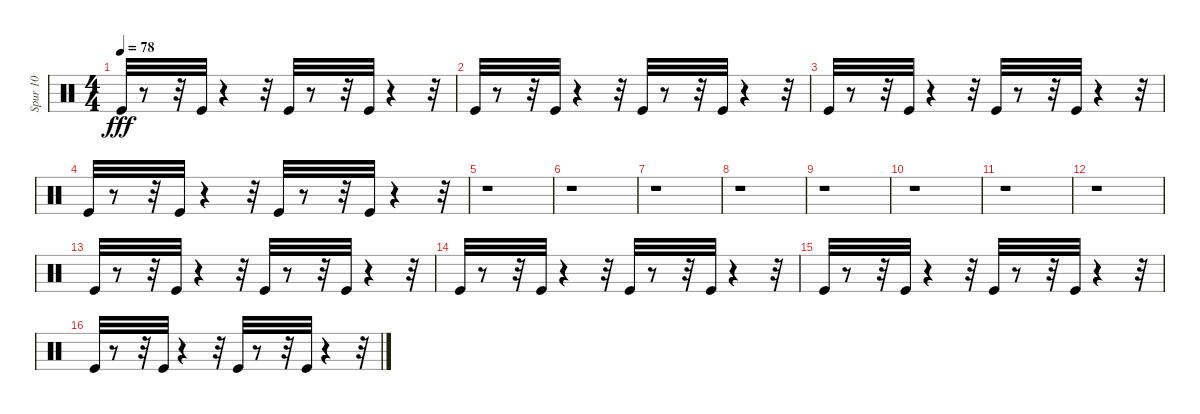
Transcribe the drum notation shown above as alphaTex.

\track ("Spur 10" "Spur 10") {instrument percussion}
\staff {score}
\articulation defaults
\ts (4 4)
\tempo 78
\clef neutral
\ks c "Kick (hit)".32{dy fff}
r.8 r.32 "Kick (hit)".32 r.4 r.32 "Kick (hit)".32 r.8 r.32 "Kick (hit)".32 r.4 r.32 |
"Kick (hit)".32 r.8 r.32 "Kick (hit)".32 r.4 r.32 "Kick (hit)".32 r.8 r.32 "Kick (hit)".32 r.4 r.32 |
"Kick (hit)".32 r.8 r.32 "Kick (hit)".32 r.4 r.32 "Kick (hit)".32 r.8 r.32 "Kick (hit)".32 r.4 r.32 |
"Kick (hit)".32 r.8 r.32 "Kick (hit)".32 r.4 r.32 "Kick (hit)".32 r.8 r.32 "Kick (hit)".32 r.4 r.32 |
r.1 |
r.1 |
r.1 |
r.1 |
r.1 |
r.1 |
r.1 |
r.1 |
"Kick (hit)".32 r.8 r.32 "Kick (hit)".32 r.4 r.32 "Kick (hit)".32 r.8 r.32 "Kick (hit)".32 r.4 r.32 |
"Kick (hit)".32 r.8 r.32 "Kick (hit)".32 r.4 r.32 "Kick (hit)".32 r.8 r.32 "Kick (hit)".32 r.4 r.32 |
"Kick (hit)".32 r.8 r.32 "Kick (hit)".32 r.4 r.32 "Kick (hit)".32 r.8 r.32 "Kick (hit)".32 r.4 r.32 |
"Kick (hit)".32 r.8 r.32 "Kick (hit)".32 r.4 r.32 "Kick (hit)".32 r.8 r.32 "Kick (hit)".32 r.4 r.32
